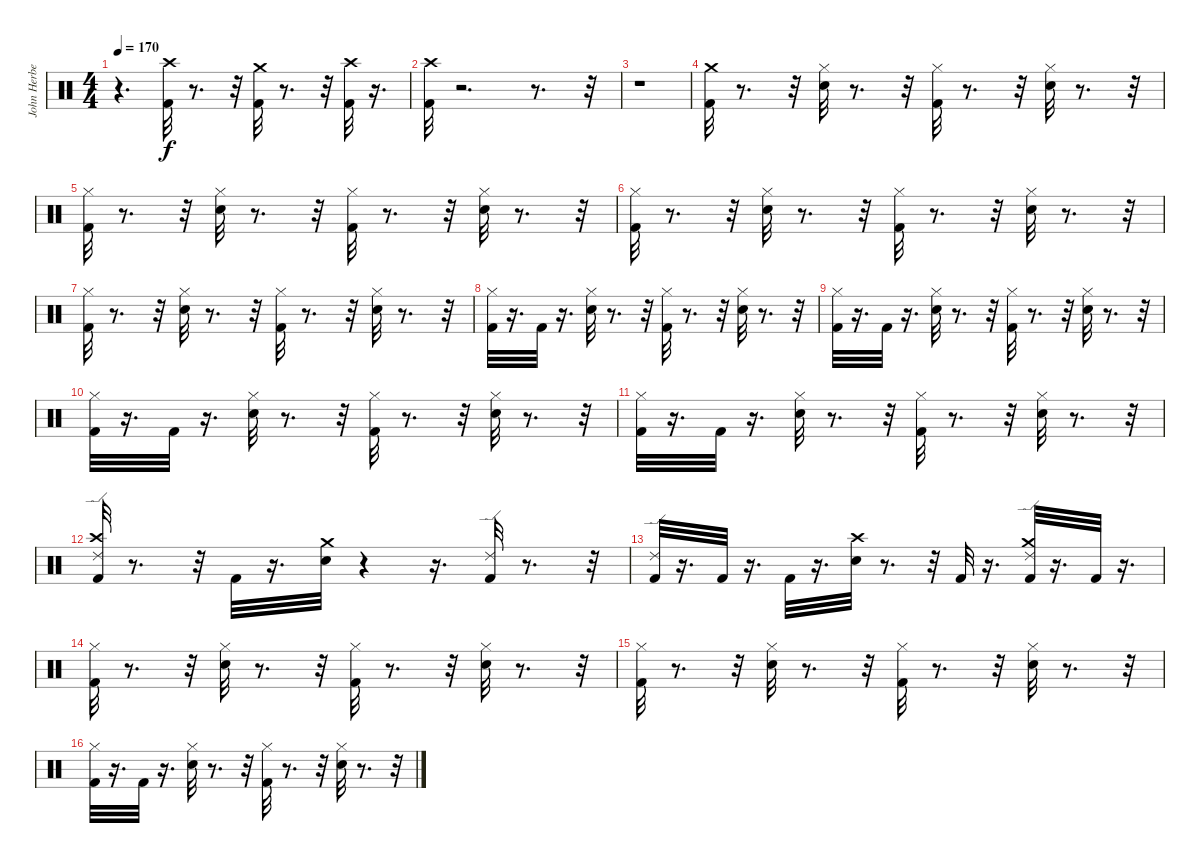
\track ("John Herbert" "John Herbe") {instrument percussion}
\staff {score}
\articulation defaults
\ts (4 4)
\tempo 170
\clef neutral
\ks c
r.4{d dy f} ("Kick (hit) 2" "Crash high (hit)").32 r.8{d} r.32 ("Kick (hit) 2" "Crash medium (hit)").32 r.8{d} r.32 ("Kick (hit) 2" "Crash high (hit)").32 r.16{d} |
("Kick (hit) 2" "Crash high (hit)").32 r.2{d} r.8{d} r.32 |
r.1 |
("Kick (hit) 2" "Crash medium (hit)").32 r.8{d} r.32 ("Hi-Hat (closed)" "Snare (hit) 2").32 r.8{d} r.32 ("Hi-Hat (closed)" "Kick (hit) 2").32 r.8{d} r.32 ("Hi-Hat (closed)" "Snare (hit) 2").32 r.8{d} r.32 |
("Hi-Hat (closed)" "Kick (hit) 2").32 r.8{d} r.32 ("Hi-Hat (closed)" "Snare (hit) 2").32 r.8{d} r.32 ("Hi-Hat (closed)" "Kick (hit) 2").32 r.8{d} r.32 ("Hi-Hat (closed)" "Snare (hit) 2").32 r.8{d} r.32 |
("Hi-Hat (closed)" "Kick (hit) 2").32 r.8{d} r.32 ("Hi-Hat (closed)" "Snare (hit) 2").32 r.8{d} r.32 ("Hi-Hat (closed)" "Kick (hit) 2").32 r.8{d} r.32 ("Hi-Hat (closed)" "Snare (hit) 2").32 r.8{d} r.32 |
("Hi-Hat (closed)" "Kick (hit) 2").32 r.8{d} r.32 ("Hi-Hat (closed)" "Snare (hit) 2").32 r.8{d} r.32 ("Hi-Hat (closed)" "Kick (hit) 2").32 r.8{d} r.32 ("Hi-Hat (closed)" "Snare (hit) 2").32 r.8{d} r.32 |
("Hi-Hat (closed)" "Kick (hit) 2").32 r.16{d} "Kick (hit) 2".32 r.16{d} ("Hi-Hat (closed)" "Snare (hit) 2").32 r.8{d} r.32 ("Hi-Hat (closed)" "Kick (hit) 2").32 r.8{d} r.32 ("Hi-Hat (closed)" "Snare (hit) 2").32 r.8{d} r.32 |
("Hi-Hat (closed)" "Kick (hit) 2").32 r.16{d} "Kick (hit) 2".32 r.16{d} ("Hi-Hat (closed)" "Snare (hit) 2").32 r.8{d} r.32 ("Hi-Hat (closed)" "Kick (hit) 2").32 r.8{d} r.32 ("Hi-Hat (closed)" "Snare (hit) 2").32 r.8{d} r.32 |
("Hi-Hat (closed)" "Kick (hit) 2").32 r.16{d} "Kick (hit) 2".32 r.16{d} ("Hi-Hat (closed)" "Snare (hit) 2").32 r.8{d} r.32 ("Hi-Hat (closed)" "Kick (hit) 2").32 r.8{d} r.32 ("Hi-Hat (closed)" "Snare (hit) 2").32 r.8{d} r.32 |
("Hi-Hat (closed)" "Kick (hit) 2").32 r.16{d} "Kick (hit) 2".32 r.16{d} ("Hi-Hat (closed)" "Snare (hit) 2").32 r.8{d} r.32 ("Hi-Hat (closed)" "Kick (hit) 2").32 r.8{d} r.32 ("Hi-Hat (closed)" "Snare (hit) 2").32 r.8{d} r.32 |
("Ride (edge) 2" "Crash high (hit)" "Kick (hit) 2").32 r.8{d} r.32 "Kick (hit) 2".32 r.16{d} ("Crash medium (hit)" "Snare (hit) 2").32 r.4 r.16{d} ("Ride (edge) 2" "Kick (hit) 2").32 r.8{d} r.32 |
("Ride (edge) 2" "Kick (hit) 2").32 r.16{d} "Kick (hit) 2".32 r.16{d} "Kick (hit) 2".32 r.16{d} ("Crash high (hit)" "Snare (hit) 2").32 r.8{d} r.32 "Kick (hit) 2".32 r.16{d} ("Ride (edge) 2" "Crash medium (hit)" "Kick (hit) 2").32 r.16{d} "Kick (hit) 2".32 r.16{d} |
("Hi-Hat (closed)" "Kick (hit) 2").32 r.8{d} r.32 ("Hi-Hat (closed)" "Snare (hit) 2").32 r.8{d} r.32 ("Hi-Hat (closed)" "Kick (hit) 2").32 r.8{d} r.32 ("Hi-Hat (closed)" "Snare (hit) 2").32 r.8{d} r.32 |
("Hi-Hat (closed)" "Kick (hit) 2").32 r.8{d} r.32 ("Hi-Hat (closed)" "Snare (hit) 2").32 r.8{d} r.32 ("Hi-Hat (closed)" "Kick (hit) 2").32 r.8{d} r.32 ("Hi-Hat (closed)" "Snare (hit) 2").32 r.8{d} r.32 |
("Hi-Hat (closed)" "Kick (hit) 2").32 r.16{d} "Kick (hit) 2".32 r.16{d} ("Hi-Hat (closed)" "Snare (hit) 2").32 r.8{d} r.32 ("Hi-Hat (closed)" "Kick (hit) 2").32 r.8{d} r.32 ("Hi-Hat (closed)" "Snare (hit) 2").32 r.8{d} r.32
